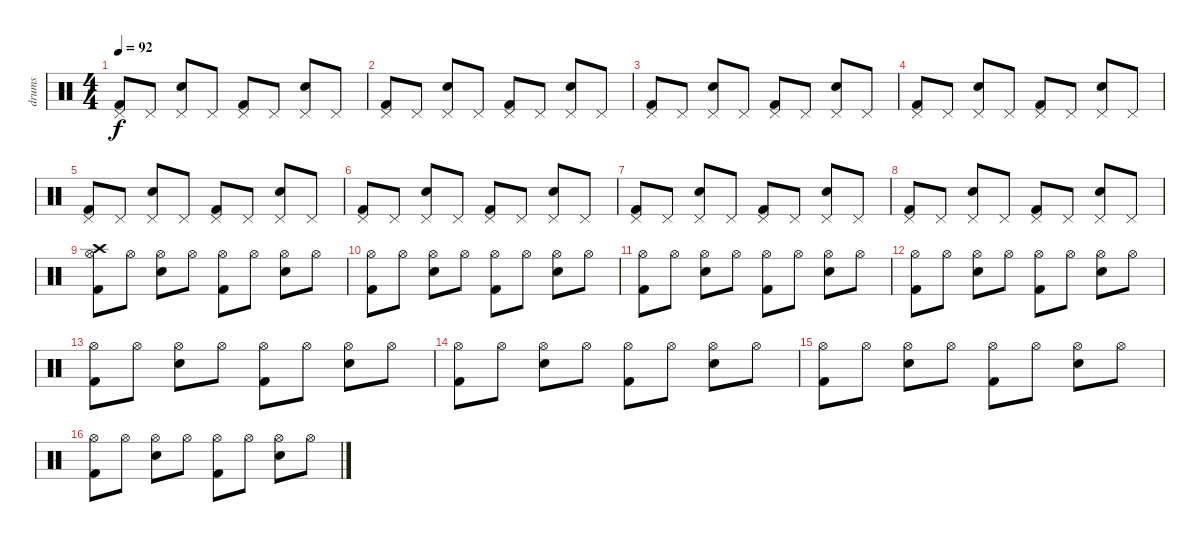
\track ("drums" "drums") {instrument percussion}
\staff {score}
\articulation defaults
\ts (4 4)
\tempo 92
\clef neutral
\ks c
("Kick (hit) 2" "Pedal Hi-Hat (hit)").8{dy f} "Pedal Hi-Hat (hit)".8 ("Pedal Hi-Hat (hit)" "Snare (hit) 2").8 "Pedal Hi-Hat (hit)".8 ("Kick (hit) 2" "Pedal Hi-Hat (hit)").8 "Pedal Hi-Hat (hit)".8 ("Pedal Hi-Hat (hit)" "Snare (hit) 2").8 "Pedal Hi-Hat (hit)".8 |
("Kick (hit) 2" "Pedal Hi-Hat (hit)").8 "Pedal Hi-Hat (hit)".8 ("Pedal Hi-Hat (hit)" "Snare (hit) 2").8 "Pedal Hi-Hat (hit)".8 ("Kick (hit) 2" "Pedal Hi-Hat (hit)").8 "Pedal Hi-Hat (hit)".8 ("Pedal Hi-Hat (hit)" "Snare (hit) 2").8 "Pedal Hi-Hat (hit)".8 |
("Kick (hit) 2" "Pedal Hi-Hat (hit)").8 "Pedal Hi-Hat (hit)".8 ("Pedal Hi-Hat (hit)" "Snare (hit) 2").8 "Pedal Hi-Hat (hit)".8 ("Kick (hit) 2" "Pedal Hi-Hat (hit)").8 "Pedal Hi-Hat (hit)".8 ("Pedal Hi-Hat (hit)" "Snare (hit) 2").8 "Pedal Hi-Hat (hit)".8 |
("Kick (hit) 2" "Pedal Hi-Hat (hit)").8 "Pedal Hi-Hat (hit)".8 ("Pedal Hi-Hat (hit)" "Snare (hit) 2").8 "Pedal Hi-Hat (hit)".8 ("Kick (hit) 2" "Pedal Hi-Hat (hit)").8 "Pedal Hi-Hat (hit)".8 ("Pedal Hi-Hat (hit)" "Snare (hit) 2").8 "Pedal Hi-Hat (hit)".8 |
("Kick (hit) 2" "Pedal Hi-Hat (hit)").8 "Pedal Hi-Hat (hit)".8 ("Pedal Hi-Hat (hit)" "Snare (hit) 2").8 "Pedal Hi-Hat (hit)".8 ("Kick (hit) 2" "Pedal Hi-Hat (hit)").8 "Pedal Hi-Hat (hit)".8 ("Pedal Hi-Hat (hit)" "Snare (hit) 2").8 "Pedal Hi-Hat (hit)".8 |
("Kick (hit) 2" "Pedal Hi-Hat (hit)").8 "Pedal Hi-Hat (hit)".8 ("Pedal Hi-Hat (hit)" "Snare (hit) 2").8 "Pedal Hi-Hat (hit)".8 ("Kick (hit) 2" "Pedal Hi-Hat (hit)").8 "Pedal Hi-Hat (hit)".8 ("Pedal Hi-Hat (hit)" "Snare (hit) 2").8 "Pedal Hi-Hat (hit)".8 |
("Kick (hit) 2" "Pedal Hi-Hat (hit)").8 "Pedal Hi-Hat (hit)".8 ("Pedal Hi-Hat (hit)" "Snare (hit) 2").8 "Pedal Hi-Hat (hit)".8 ("Kick (hit) 2" "Pedal Hi-Hat (hit)").8 "Pedal Hi-Hat (hit)".8 ("Pedal Hi-Hat (hit)" "Snare (hit) 2").8 "Pedal Hi-Hat (hit)".8 |
("Kick (hit) 2" "Pedal Hi-Hat (hit)").8 "Pedal Hi-Hat (hit)".8 ("Pedal Hi-Hat (hit)" "Snare (hit) 2").8 "Pedal Hi-Hat (hit)".8 ("Kick (hit) 2" "Pedal Hi-Hat (hit)").8 "Pedal Hi-Hat (hit)".8 ("Pedal Hi-Hat (hit)" "Snare (hit) 2").8 "Pedal Hi-Hat (hit)".8 |
("Kick (hit) 2" "Hi-Hat (open)" "Crash high (hit)").8 "Hi-Hat (open)".8 ("Hi-Hat (open)" "Snare (hit) 2").8 "Hi-Hat (open)".8 ("Kick (hit) 2" "Hi-Hat (open)").8 "Hi-Hat (open)".8 ("Hi-Hat (open)" "Snare (hit) 2").8 "Hi-Hat (open)".8 |
("Kick (hit) 2" "Hi-Hat (open)").8 "Hi-Hat (open)".8 ("Hi-Hat (open)" "Snare (hit) 2").8 "Hi-Hat (open)".8 ("Kick (hit) 2" "Hi-Hat (open)").8 "Hi-Hat (open)".8 ("Hi-Hat (open)" "Snare (hit) 2").8 "Hi-Hat (open)".8 |
("Kick (hit) 2" "Hi-Hat (open)").8 "Hi-Hat (open)".8 ("Hi-Hat (open)" "Snare (hit) 2").8 "Hi-Hat (open)".8 ("Kick (hit) 2" "Hi-Hat (open)").8 "Hi-Hat (open)".8 ("Hi-Hat (open)" "Snare (hit) 2").8 "Hi-Hat (open)".8 |
("Kick (hit) 2" "Hi-Hat (open)").8 "Hi-Hat (open)".8 ("Hi-Hat (open)" "Snare (hit) 2").8 "Hi-Hat (open)".8 ("Kick (hit) 2" "Hi-Hat (open)").8 "Hi-Hat (open)".8 ("Hi-Hat (open)" "Snare (hit) 2").8 "Hi-Hat (open)".8 |
("Kick (hit) 2" "Hi-Hat (open)").8 "Hi-Hat (open)".8 ("Hi-Hat (open)" "Snare (hit) 2").8 "Hi-Hat (open)".8 ("Kick (hit) 2" "Hi-Hat (open)").8 "Hi-Hat (open)".8 ("Hi-Hat (open)" "Snare (hit) 2").8 "Hi-Hat (open)".8 |
("Kick (hit) 2" "Hi-Hat (open)").8 "Hi-Hat (open)".8 ("Hi-Hat (open)" "Snare (hit) 2").8 "Hi-Hat (open)".8 ("Kick (hit) 2" "Hi-Hat (open)").8 "Hi-Hat (open)".8 ("Hi-Hat (open)" "Snare (hit) 2").8 "Hi-Hat (open)".8 |
("Kick (hit) 2" "Hi-Hat (open)").8 "Hi-Hat (open)".8 ("Hi-Hat (open)" "Snare (hit) 2").8 "Hi-Hat (open)".8 ("Kick (hit) 2" "Hi-Hat (open)").8 "Hi-Hat (open)".8 ("Hi-Hat (open)" "Snare (hit) 2").8 "Hi-Hat (open)".8 |
("Kick (hit) 2" "Hi-Hat (open)").8 "Hi-Hat (open)".8 ("Hi-Hat (open)" "Snare (hit) 2").8 "Hi-Hat (open)".8 ("Kick (hit) 2" "Hi-Hat (open)").8 "Hi-Hat (open)".8 ("Hi-Hat (open)" "Snare (hit) 2").8 "Hi-Hat (open)".8
